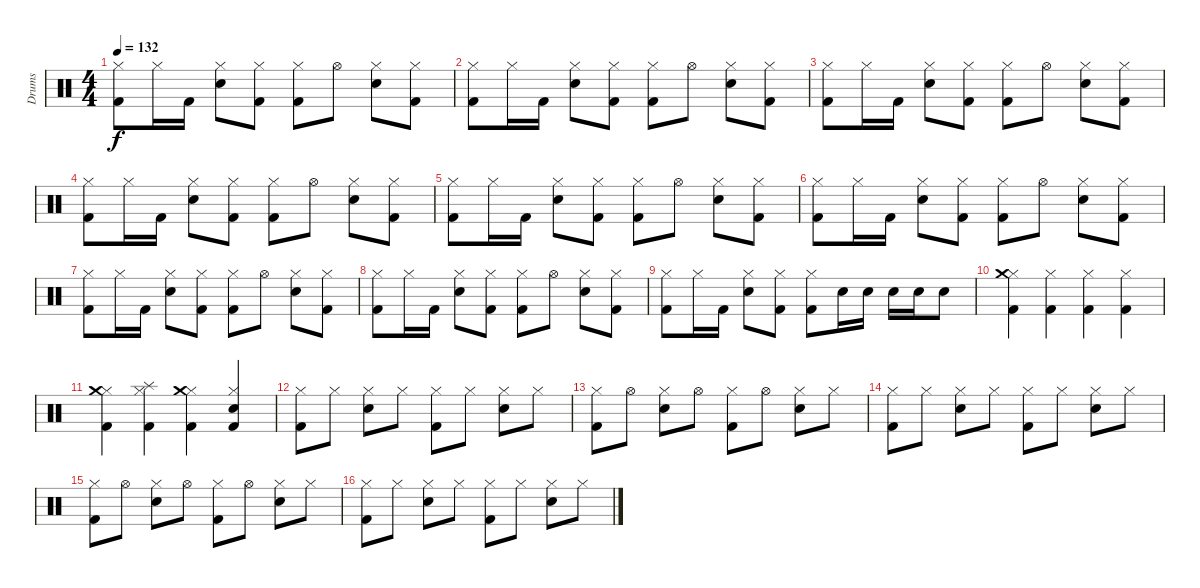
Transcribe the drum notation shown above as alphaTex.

\track ("Drums" "Drums") {instrument percussion}
\staff {score}
\articulation defaults
\ts (4 4)
\tempo 132
\clef neutral
\ks c
("Kick (hit) 2" "Hi-Hat (closed)").8{dy f} "Hi-Hat (closed)".16 "Kick (hit) 2".16 ("Electric Snare (hit)" "Hi-Hat (closed)").8 ("Kick (hit) 2" "Hi-Hat (closed)").8 ("Kick (hit) 2" "Hi-Hat (closed)").8 "Hi-Hat (open)".8 ("Electric Snare (hit)" "Hi-Hat (closed)").8 ("Kick (hit) 2" "Hi-Hat (closed)").8 |
("Kick (hit) 2" "Hi-Hat (closed)").8 "Hi-Hat (closed)".16 "Kick (hit) 2".16 ("Electric Snare (hit)" "Hi-Hat (closed)").8 ("Kick (hit) 2" "Hi-Hat (closed)").8 ("Kick (hit) 2" "Hi-Hat (closed)").8 "Hi-Hat (open)".8 ("Electric Snare (hit)" "Hi-Hat (closed)").8 ("Kick (hit) 2" "Hi-Hat (closed)").8 |
("Kick (hit) 2" "Hi-Hat (closed)").8 "Hi-Hat (closed)".16 "Kick (hit) 2".16 ("Electric Snare (hit)" "Hi-Hat (closed)").8 ("Kick (hit) 2" "Hi-Hat (closed)").8 ("Kick (hit) 2" "Hi-Hat (closed)").8 "Hi-Hat (open)".8 ("Electric Snare (hit)" "Hi-Hat (closed)").8 ("Kick (hit) 2" "Hi-Hat (closed)").8 |
("Kick (hit) 2" "Hi-Hat (closed)").8 "Hi-Hat (closed)".16 "Kick (hit) 2".16 ("Electric Snare (hit)" "Hi-Hat (closed)").8 ("Kick (hit) 2" "Hi-Hat (closed)").8 ("Kick (hit) 2" "Hi-Hat (closed)").8 "Hi-Hat (open)".8 ("Electric Snare (hit)" "Hi-Hat (closed)").8 ("Kick (hit) 2" "Hi-Hat (closed)").8 |
("Kick (hit) 2" "Hi-Hat (closed)").8 "Hi-Hat (closed)".16 "Kick (hit) 2".16 ("Electric Snare (hit)" "Hi-Hat (closed)").8 ("Kick (hit) 2" "Hi-Hat (closed)").8 ("Kick (hit) 2" "Hi-Hat (closed)").8 "Hi-Hat (open)".8 ("Electric Snare (hit)" "Hi-Hat (closed)").8 ("Kick (hit) 2" "Hi-Hat (closed)").8 |
("Kick (hit) 2" "Hi-Hat (closed)").8 "Hi-Hat (closed)".16 "Kick (hit) 2".16 ("Electric Snare (hit)" "Hi-Hat (closed)").8 ("Kick (hit) 2" "Hi-Hat (closed)").8 ("Kick (hit) 2" "Hi-Hat (closed)").8 "Hi-Hat (open)".8 ("Electric Snare (hit)" "Hi-Hat (closed)").8 ("Kick (hit) 2" "Hi-Hat (closed)").8 |
("Kick (hit) 2" "Hi-Hat (closed)").8 "Hi-Hat (closed)".16 "Kick (hit) 2".16 ("Electric Snare (hit)" "Hi-Hat (closed)").8 ("Kick (hit) 2" "Hi-Hat (closed)").8 ("Kick (hit) 2" "Hi-Hat (closed)").8 "Hi-Hat (open)".8 ("Electric Snare (hit)" "Hi-Hat (closed)").8 ("Kick (hit) 2" "Hi-Hat (closed)").8 |
("Kick (hit) 2" "Hi-Hat (closed)").8 "Hi-Hat (closed)".16 "Kick (hit) 2".16 ("Electric Snare (hit)" "Hi-Hat (closed)").8 ("Kick (hit) 2" "Hi-Hat (closed)").8 ("Kick (hit) 2" "Hi-Hat (closed)").8 "Hi-Hat (open)".8 ("Electric Snare (hit)" "Hi-Hat (closed)").8 ("Kick (hit) 2" "Hi-Hat (closed)").8 |
("Kick (hit) 2" "Hi-Hat (closed)").8 "Hi-Hat (closed)".16 "Kick (hit) 2".16 ("Electric Snare (hit)" "Hi-Hat (closed)").8 ("Kick (hit) 2" "Hi-Hat (closed)").8 ("Kick (hit) 2" "Hi-Hat (closed)").8 "Electric Snare (hit)".16 "Electric Snare (hit)".16 "Electric Snare (hit)".16 "Electric Snare (hit)".16 "Electric Snare (hit)".8 |
("Kick (hit) 2" "Hi-Hat (closed)" "Crash medium (hit)").4 ("Kick (hit) 2" "Hi-Hat (closed)").4 ("Kick (hit) 2" "Hi-Hat (closed)").4 ("Kick (hit) 2" "Hi-Hat (closed)").4 |
("Kick (hit) 2" "Hi-Hat (closed)" "Crash medium (hit)").4 ("Kick (hit) 2" "Hi-Hat (closed)" "Splash (hit)").4 ("Kick (hit) 2" "Hi-Hat (closed)" "Crash medium (hit)").4 ("Kick (hit) 2" "Electric Snare (hit)" "Hi-Hat (closed)").4 |
("Kick (hit) 2" "Hi-Hat (closed)").8 "Hi-Hat (closed)".8 ("Electric Snare (hit)" "Hi-Hat (closed)").8 "Hi-Hat (closed)".8 ("Kick (hit) 2" "Hi-Hat (closed)").8 "Hi-Hat (closed)".8 ("Electric Snare (hit)" "Hi-Hat (closed)").8 "Hi-Hat (closed)".8 |
("Kick (hit) 2" "Hi-Hat (closed)").8 "Hi-Hat (open)".8 ("Electric Snare (hit)" "Hi-Hat (closed)").8 "Hi-Hat (open)".8 ("Kick (hit) 2" "Hi-Hat (closed)").8 "Hi-Hat (open)".8 ("Electric Snare (hit)" "Hi-Hat (closed)").8 "Hi-Hat (closed)".8 |
("Kick (hit) 2" "Hi-Hat (closed)").8 "Hi-Hat (closed)".8 ("Electric Snare (hit)" "Hi-Hat (closed)").8 "Hi-Hat (closed)".8 ("Kick (hit) 2" "Hi-Hat (closed)").8 "Hi-Hat (closed)".8 ("Electric Snare (hit)" "Hi-Hat (closed)").8 "Hi-Hat (closed)".8 |
("Kick (hit) 2" "Hi-Hat (closed)").8 "Hi-Hat (open)".8 ("Electric Snare (hit)" "Hi-Hat (closed)").8 "Hi-Hat (open)".8 ("Kick (hit) 2" "Hi-Hat (closed)").8 "Hi-Hat (open)".8 ("Electric Snare (hit)" "Hi-Hat (closed)").8 "Hi-Hat (closed)".8 |
("Kick (hit) 2" "Hi-Hat (closed)").8 "Hi-Hat (closed)".8 ("Electric Snare (hit)" "Hi-Hat (closed)").8 "Hi-Hat (closed)".8 ("Kick (hit) 2" "Hi-Hat (closed)").8 "Hi-Hat (closed)".8 ("Electric Snare (hit)" "Hi-Hat (closed)").8 "Hi-Hat (closed)".8
